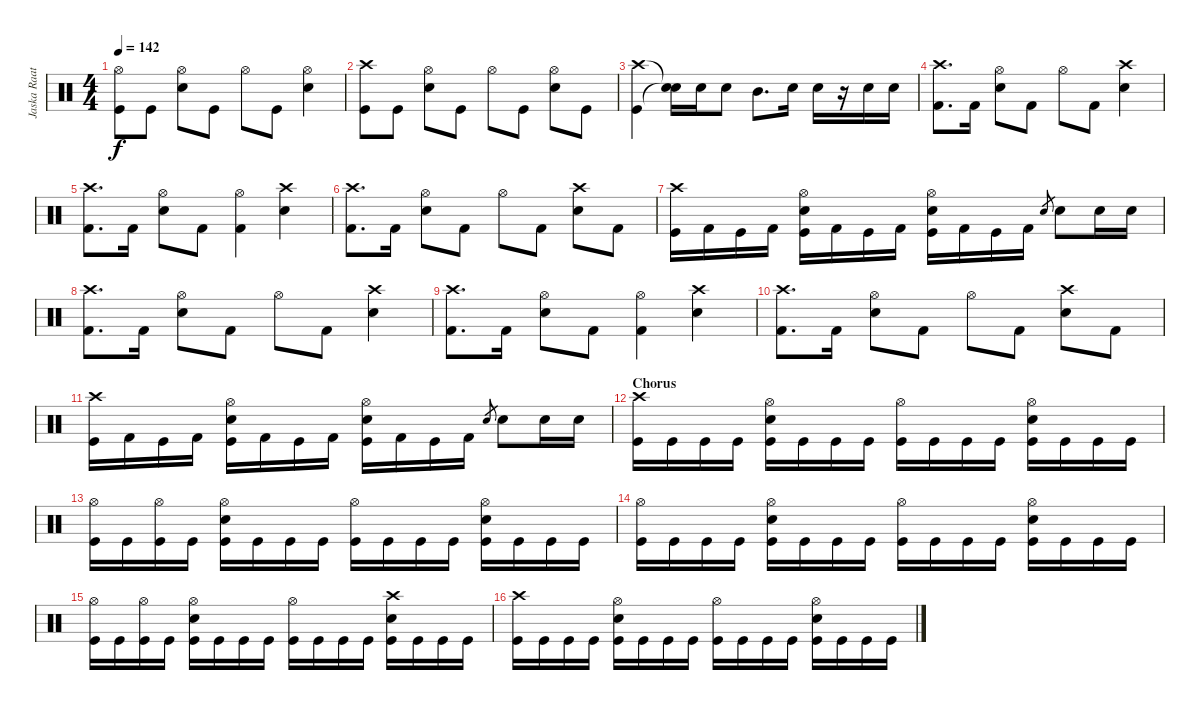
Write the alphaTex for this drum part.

\track ("Jaska Raatikainen" "Jaska Raat") {instrument percussion}
\staff {score}
\articulation defaults
\ts (4 4)
\tempo 142
\clef neutral
\ks c
("Hi-Hat (open)" "Kick (hit)").8{dy f} "Kick (hit)".8 ("Hi-Hat (open)" "Snare (hit) 2").8 "Kick (hit)".8 "Hi-Hat (open)".8 "Kick (hit)".8 ("Hi-Hat (open)" "Snare (hit) 2").4 |
("Crash high (hit)" "Kick (hit)").8 "Kick (hit)".8 ("Hi-Hat (open)" "Snare (hit) 2").8 "Kick (hit)".8 "Hi-Hat (open)".8 "Kick (hit)".8 ("Hi-Hat (open)" "Snare (hit) 2").8 "Kick (hit)".8 |
("Crash high (hit)" "Kick (hit)").4 ("Snare (hit)"{t} "Snare (hit)"{t}).16 "Snare (hit) 2".16 "Snare (hit) 2".8 "Mid Tom (hit)".8{d} "Snare (hit) 2".16 "Snare (hit) 2".16 r.16 "Snare (hit) 2".16 "Snare (hit) 2".16 |
("Crash high (hit)" "Kick (hit) 2").8{d} "Kick (hit) 2".16 ("Hi-Hat (open)" "Electric Snare (hit)").8 "Kick (hit) 2".8 "Hi-Hat (open)".8 "Kick (hit) 2".8 ("Crash high (hit)" "Electric Snare (hit)").4 |
("Crash high (hit)" "Kick (hit) 2").8{d} "Kick (hit) 2".16 ("Hi-Hat (open)" "Electric Snare (hit)").8 "Kick (hit) 2".8 ("Hi-Hat (open)" "Kick (hit) 2").4 ("Crash high (hit)" "Electric Snare (hit)").4 |
("Crash high (hit)" "Kick (hit) 2").8{d} "Kick (hit) 2".16 ("Hi-Hat (open)" "Electric Snare (hit)").8 "Kick (hit) 2".8 "Hi-Hat (open)".8 "Kick (hit) 2".8 ("Crash high (hit)" "Electric Snare (hit)").8 "Kick (hit) 2".8 |
("Crash high (hit)" "Kick (hit)").16 "Kick (hit) 2".16 "Kick (hit)".16 "Kick (hit) 2".16 ("Hi-Hat (open)" "Electric Snare (hit)" "Kick (hit)").16 "Kick (hit) 2".16 "Kick (hit)".16 "Kick (hit) 2".16 ("Hi-Hat (open)" "Electric Snare (hit)" "Kick (hit)").16 "Kick (hit) 2".16 "Kick (hit)".16 "Kick (hit) 2".16 "Electric Snare (hit)".8{gr} "Electric Snare (hit)".8 "Electric Snare (hit)".16 "Electric Snare (hit)".16 |
("Crash high (hit)" "Kick (hit) 2").8{d} "Kick (hit) 2".16 ("Hi-Hat (open)" "Electric Snare (hit)").8 "Kick (hit) 2".8 "Hi-Hat (open)".8 "Kick (hit) 2".8 ("Crash high (hit)" "Electric Snare (hit)").4 |
("Crash high (hit)" "Kick (hit) 2").8{d} "Kick (hit) 2".16 ("Hi-Hat (open)" "Electric Snare (hit)").8 "Kick (hit) 2".8 ("Hi-Hat (open)" "Kick (hit) 2").4 ("Crash high (hit)" "Electric Snare (hit)").4 |
("Crash high (hit)" "Kick (hit) 2").8{d} "Kick (hit) 2".16 ("Hi-Hat (open)" "Electric Snare (hit)").8 "Kick (hit) 2".8 "Hi-Hat (open)".8 "Kick (hit) 2".8 ("Crash high (hit)" "Electric Snare (hit)").8 "Kick (hit) 2".8 |
("Crash high (hit)" "Kick (hit)").16 "Kick (hit) 2".16 "Kick (hit)".16 "Kick (hit) 2".16 ("Hi-Hat (open)" "Electric Snare (hit)" "Kick (hit)").16 "Kick (hit) 2".16 "Kick (hit)".16 "Kick (hit) 2".16 ("Hi-Hat (open)" "Electric Snare (hit)" "Kick (hit)").16 "Kick (hit) 2".16 "Kick (hit)".16 "Kick (hit) 2".16 "Electric Snare (hit)".8{gr} "Electric Snare (hit)".8 "Electric Snare (hit)".16 "Electric Snare (hit)".16 |
\section ("" "Chorus")
("Crash high (hit)" "Kick (hit)").16 "Kick (hit)".16 "Kick (hit)".16 "Kick (hit)".16 ("Hi-Hat (open)" "Snare (hit) 2" "Kick (hit)").16 "Kick (hit)".16 "Kick (hit)".16 "Kick (hit)".16 ("Hi-Hat (open)" "Kick (hit)").16 "Kick (hit)".16 "Kick (hit)".16 "Kick (hit)".16 ("Hi-Hat (open)" "Snare (hit) 2" "Kick (hit)").16 "Kick (hit)".16 "Kick (hit)".16 "Kick (hit)".16 |
("Hi-Hat (open)" "Kick (hit)").16 "Kick (hit)".16 ("Hi-Hat (open)" "Kick (hit)").16 "Kick (hit)".16 ("Hi-Hat (open)" "Snare (hit) 2" "Kick (hit)").16 "Kick (hit)".16 "Kick (hit)".16 "Kick (hit)".16 ("Hi-Hat (open)" "Kick (hit)").16 "Kick (hit)".16 "Kick (hit)".16 "Kick (hit)".16 ("Hi-Hat (open)" "Snare (hit) 2" "Kick (hit)").16 "Kick (hit)".16 "Kick (hit)".16 "Kick (hit)".16 |
("Hi-Hat (open)" "Kick (hit)").16 "Kick (hit)".16 "Kick (hit)".16 "Kick (hit)".16 ("Hi-Hat (open)" "Snare (hit) 2" "Kick (hit)").16 "Kick (hit)".16 "Kick (hit)".16 "Kick (hit)".16 ("Hi-Hat (open)" "Kick (hit)").16 "Kick (hit)".16 "Kick (hit)".16 "Kick (hit)".16 ("Hi-Hat (open)" "Snare (hit) 2" "Kick (hit)").16 "Kick (hit)".16 "Kick (hit)".16 "Kick (hit)".16 |
("Hi-Hat (open)" "Kick (hit)").16 "Kick (hit)".16 ("Hi-Hat (open)" "Kick (hit)").16 "Kick (hit)".16 ("Hi-Hat (open)" "Snare (hit) 2" "Kick (hit)").16 "Kick (hit)".16 "Kick (hit)".16 "Kick (hit)".16 ("Hi-Hat (open)" "Kick (hit)").16 "Kick (hit)".16 "Kick (hit)".16 "Kick (hit)".16 ("Crash high (hit)" "Snare (hit) 2" "Kick (hit)").16 "Kick (hit)".16 "Kick (hit)".16 "Kick (hit)".16 |
("Crash high (hit)" "Kick (hit)").16 "Kick (hit)".16 "Kick (hit)".16 "Kick (hit)".16 ("Hi-Hat (open)" "Snare (hit) 2" "Kick (hit)").16 "Kick (hit)".16 "Kick (hit)".16 "Kick (hit)".16 ("Hi-Hat (open)" "Kick (hit)").16 "Kick (hit)".16 "Kick (hit)".16 "Kick (hit)".16 ("Hi-Hat (open)" "Snare (hit) 2" "Kick (hit)").16 "Kick (hit)".16 "Kick (hit)".16 "Kick (hit)".16
